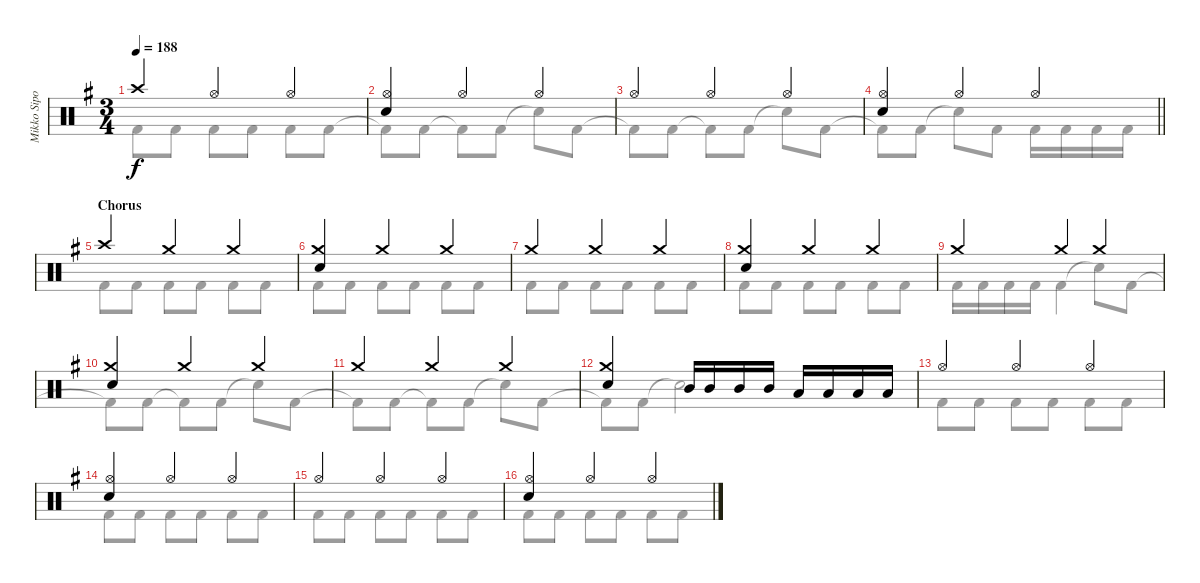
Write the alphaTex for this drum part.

\track ("Mikko Sipola (drums)" "Mikko Sipo") {instrument percussion}
\staff {score}
\articulation defaults
\voice
\ts (3 4)
\tempo 188
\clef neutral
\ks eminor "Crash high (hit)".4{dy f} "Hi-Hat (open)".4 "Hi-Hat (open)".4
|
("Hi-Hat (open)" "Electric Snare (hit)").4 "Hi-Hat (open)".4 "Hi-Hat (open)".4 |
"Hi-Hat (open)".4 "Hi-Hat (open)".4 "Hi-Hat (open)".4 |
\barLineRight lightlight
("Hi-Hat (open)" "Electric Snare (hit)").4 "Hi-Hat (open)".4 "Hi-Hat (open)".4 |
\section ("" "Chorus")
"Crash high (hit)".4 "Crash medium (hit)".4 "Crash medium (hit)".4 |
("Crash medium (hit)" "Electric Snare (hit)").4 "Crash medium (hit)".4 "Crash medium (hit)".4 |
"Crash medium (hit)".4 "Crash medium (hit)".4 "Crash medium (hit)".4 |
("Crash medium (hit)" "Electric Snare (hit)").4 "Crash medium (hit)".4 "Crash medium (hit)".4 |
"Crash medium (hit)".4 "Crash medium (hit)".4 "Crash medium (hit)".4 |
("Crash medium (hit)" "Electric Snare (hit)").4 "Crash medium (hit)".4 "Crash medium (hit)".4 |
"Crash medium (hit)".4 "Crash medium (hit)".4 "Crash medium (hit)".4 |
("Crash medium (hit)" "Electric Snare (hit)").4 "Mid Tom (hit)".16 "Mid Tom (hit)".16 "Mid Tom (hit)".16 "Mid Tom (hit)".16 "Low Tom (hit)".16 "Low Tom (hit)".16 "Low Tom (hit)".16 "Low Tom (hit)".16 |
"Hi-Hat (open)".4 "Hi-Hat (open)".4 "Hi-Hat (open)".4 |
("Hi-Hat (open)" "Electric Snare (hit)").4 "Hi-Hat (open)".4 "Hi-Hat (open)".4 |
"Hi-Hat (open)".4 "Hi-Hat (open)".4 "Hi-Hat (open)".4 |
("Hi-Hat (open)" "Electric Snare (hit)").4 "Hi-Hat (open)".4 "Hi-Hat (open)".4
\voice
\clef neutral
\ottava regular
\simile none
\ks eminor "Kick (hit) 2".8{dy f} "Kick (hit) 2".8 "Kick (hit) 2".8 "Kick (hit) 2".8 "Kick (hit) 2".8 "Kick (hit) 2".8
|
"Kick (hit) 2"{t}.8 "Kick (hit) 2".8 "Kick (hit) 2"{t}.8 "Kick (hit) 2".8 "Snare (hit)"{t}.8 "Kick (hit) 2".8 |
"Kick (hit) 2"{t}.8 "Kick (hit) 2".8 "Kick (hit) 2"{t}.8 "Kick (hit) 2".8 "Snare (hit)"{t}.8 "Kick (hit) 2".8 |
\barLineRight lightlight "Kick (hit) 2"{t}.8 "Kick (hit) 2".8 "Snare (hit)"{t}.8 "Kick (hit) 2".8 "Kick (hit) 2".16 "Kick (hit) 2".16 "Kick (hit) 2".16 "Kick (hit) 2".16
|
"Kick (hit) 2".8 "Kick (hit) 2".8 "Kick (hit) 2".8 "Kick (hit) 2".8 "Kick (hit) 2".8 "Kick (hit) 2".8 |
"Kick (hit) 2".8 "Kick (hit) 2".8 "Kick (hit) 2".8 "Kick (hit) 2".8 "Kick (hit) 2".8 "Kick (hit) 2".8 |
"Kick (hit) 2".8 "Kick (hit) 2".8 "Kick (hit) 2".8 "Kick (hit) 2".8 "Kick (hit) 2".8 "Kick (hit) 2".8 |
"Kick (hit) 2".8 "Kick (hit) 2".8 "Kick (hit) 2".8 "Kick (hit) 2".8 "Kick (hit) 2".8 "Kick (hit) 2".8 |
"Kick (hit) 2".16 "Kick (hit) 2".16 "Kick (hit) 2".16 "Kick (hit) 2".16 "Kick (hit) 2".4 "Snare (hit)"{t}.8 "Kick (hit) 2".8 |
"Kick (hit) 2"{t}.8 "Kick (hit) 2".8 "Kick (hit) 2"{t}.8 "Kick (hit) 2".8 "Snare (hit)"{t}.8 "Kick (hit) 2".8 |
"Kick (hit) 2"{t}.8 "Kick (hit) 2".8 "Kick (hit) 2"{t}.8 "Kick (hit) 2".8 "Snare (hit)"{t}.8 "Kick (hit) 2".8 |
"Kick (hit) 2"{t}.8 "Kick (hit) 2".8 "Snare (hit)"{t}.2 |
"Kick (hit) 2".8 "Kick (hit) 2".8 "Kick (hit) 2".8 "Kick (hit) 2".8 "Kick (hit) 2".8 "Kick (hit) 2".8 |
"Kick (hit) 2".8 "Kick (hit) 2".8 "Kick (hit) 2".8 "Kick (hit) 2".8 "Kick (hit) 2".8 "Kick (hit) 2".8 |
"Kick (hit) 2".8 "Kick (hit) 2".8 "Kick (hit) 2".8 "Kick (hit) 2".8 "Kick (hit) 2".8 "Kick (hit) 2".8 |
"Kick (hit) 2".8 "Kick (hit) 2".8 "Kick (hit) 2".8 "Kick (hit) 2".8 "Kick (hit) 2".8 "Kick (hit) 2".8
